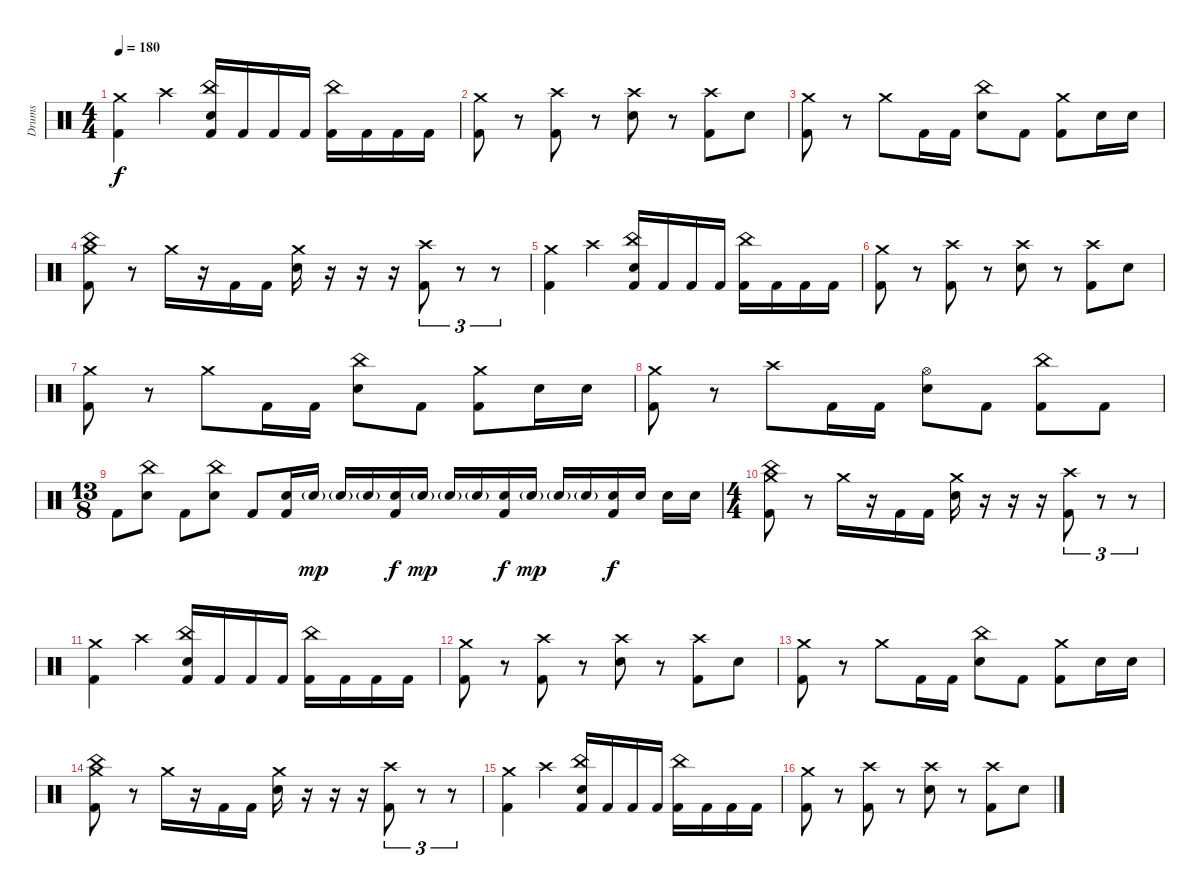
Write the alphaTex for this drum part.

\track ("Drums" "Drums") {instrument percussion}
\staff {score}
\articulation defaults
\ts (4 4)
\tempo 180
\clef neutral
\ks c
("Crash medium (hit)" "Kick (hit) 2").4{dy f} "Crash high (hit)".4 ("China (hit)" "Electric Snare (hit)" "Kick (hit) 2").16 "Kick (hit) 2".16 "Kick (hit) 2".16 "Kick (hit) 2".16 ("China (hit)" "Kick (hit) 2").16 "Kick (hit) 2".16 "Kick (hit) 2".16 "Kick (hit) 2".16 |
("Crash medium (hit)" "Kick (hit) 2").8 r.8 ("Crash high (hit)" "Kick (hit) 2").8 r.8 ("Crash high (hit)" "Electric Snare (hit)").8 r.8 ("Crash high (hit)" "Kick (hit) 2").8 "Electric Snare (hit)".8 |
("Crash medium (hit)" "Kick (hit) 2").8 r.8 "Crash medium (hit)".8 "Kick (hit) 2".16 "Kick (hit) 2".16 ("China (hit)" "Electric Snare (hit)").8 "Kick (hit) 2".8 ("Crash medium (hit)" "Kick (hit) 2").8 "Electric Snare (hit)".16 "Electric Snare (hit)".16 |
("China (hit)" "Crash medium (hit)" "Kick (hit) 2").8 r.8 "Crash medium (hit)".16 r.16 "Kick (hit) 2".16 "Kick (hit) 2".16 ("Crash medium (hit)" "Electric Snare (hit)").16 r.16 r.16 r.16 ("Crash high (hit)" "Kick (hit) 2").8{tu (3 2)} r.8{tu (3 2)} r.8{tu (3 2)} |
("Crash medium (hit)" "Kick (hit) 2").4 "Crash high (hit)".4 ("China (hit)" "Electric Snare (hit)" "Kick (hit) 2").16 "Kick (hit) 2".16 "Kick (hit) 2".16 "Kick (hit) 2".16 ("China (hit)" "Kick (hit) 2").16 "Kick (hit) 2".16 "Kick (hit) 2".16 "Kick (hit) 2".16 |
("Crash medium (hit)" "Kick (hit) 2").8 r.8 ("Crash high (hit)" "Kick (hit) 2").8 r.8 ("Crash high (hit)" "Electric Snare (hit)").8 r.8 ("Crash high (hit)" "Kick (hit) 2").8 "Electric Snare (hit)".8 |
("Crash medium (hit)" "Kick (hit) 2").8 r.8 "Crash medium (hit)".8 "Kick (hit) 2".16 "Kick (hit) 2".16 ("China (hit)" "Electric Snare (hit)").8 "Kick (hit) 2".8 ("Crash medium (hit)" "Kick (hit) 2").8 "Electric Snare (hit)".16 "Electric Snare (hit)".16 |
("Crash medium (hit)" "Kick (hit) 2").8 r.8 "Crash high (hit)".8 "Kick (hit) 2".16 "Kick (hit) 2".16 ("Hi-Hat (open)" "Electric Snare (hit)").8 "Kick (hit) 2".8 ("China (hit)" "Kick (hit) 2").8 "Kick (hit) 2".8 |
\ts (13 8)
"Kick (hit) 2".8 ("China (hit)" "Electric Snare (hit)").8 "Kick (hit) 2".8 ("China (hit)" "Electric Snare (hit)").8 "Kick (hit) 2".8 ("Kick (hit) 2" "Electric Snare (hit)").16 "Electric Snare (hit)"{g}.16{dy mp} "Electric Snare (hit)"{g}.16 "Electric Snare (hit)"{g}.16 ("Kick (hit) 2" "Electric Snare (hit)").16{dy f} "Electric Snare (hit)"{g}.16{dy mp} "Electric Snare (hit)"{g}.16 "Electric Snare (hit)"{g}.16 ("Kick (hit) 2" "Electric Snare (hit)").16{dy f} "Electric Snare (hit)"{g}.16{dy mp} "Electric Snare (hit)"{g}.16 "Electric Snare (hit)"{g}.16 ("Kick (hit) 2" "Electric Snare (hit)").16{dy f} "Electric Snare (hit)".16 "Electric Snare (hit)".16 "Electric Snare (hit)".16 |
\ts (4 4)
("China (hit)" "Crash medium (hit)" "Kick (hit) 2").8 r.8 "Crash medium (hit)".16 r.16 "Kick (hit) 2".16 "Kick (hit) 2".16 ("Crash medium (hit)" "Electric Snare (hit)").16 r.16 r.16 r.16 ("Crash high (hit)" "Kick (hit) 2").8{tu (3 2)} r.8{tu (3 2)} r.8{tu (3 2)} |
("Crash medium (hit)" "Kick (hit) 2").4 "Crash high (hit)".4 ("China (hit)" "Electric Snare (hit)" "Kick (hit) 2").16 "Kick (hit) 2".16 "Kick (hit) 2".16 "Kick (hit) 2".16 ("China (hit)" "Kick (hit) 2").16 "Kick (hit) 2".16 "Kick (hit) 2".16 "Kick (hit) 2".16 |
("Crash medium (hit)" "Kick (hit) 2").8 r.8 ("Crash high (hit)" "Kick (hit) 2").8 r.8 ("Crash high (hit)" "Electric Snare (hit)").8 r.8 ("Crash high (hit)" "Kick (hit) 2").8 "Electric Snare (hit)".8 |
("Crash medium (hit)" "Kick (hit) 2").8 r.8 "Crash medium (hit)".8 "Kick (hit) 2".16 "Kick (hit) 2".16 ("China (hit)" "Electric Snare (hit)").8 "Kick (hit) 2".8 ("Crash medium (hit)" "Kick (hit) 2").8 "Electric Snare (hit)".16 "Electric Snare (hit)".16 |
("China (hit)" "Crash medium (hit)" "Kick (hit) 2").8 r.8 "Crash medium (hit)".16 r.16 "Kick (hit) 2".16 "Kick (hit) 2".16 ("Crash medium (hit)" "Electric Snare (hit)").16 r.16 r.16 r.16 ("Crash high (hit)" "Kick (hit) 2").8{tu (3 2)} r.8{tu (3 2)} r.8{tu (3 2)} |
("Crash medium (hit)" "Kick (hit) 2").4 "Crash high (hit)".4 ("China (hit)" "Electric Snare (hit)" "Kick (hit) 2").16 "Kick (hit) 2".16 "Kick (hit) 2".16 "Kick (hit) 2".16 ("China (hit)" "Kick (hit) 2").16 "Kick (hit) 2".16 "Kick (hit) 2".16 "Kick (hit) 2".16 |
("Crash medium (hit)" "Kick (hit) 2").8 r.8 ("Crash high (hit)" "Kick (hit) 2").8 r.8 ("Crash high (hit)" "Electric Snare (hit)").8 r.8 ("Crash high (hit)" "Kick (hit) 2").8 "Electric Snare (hit)".8
